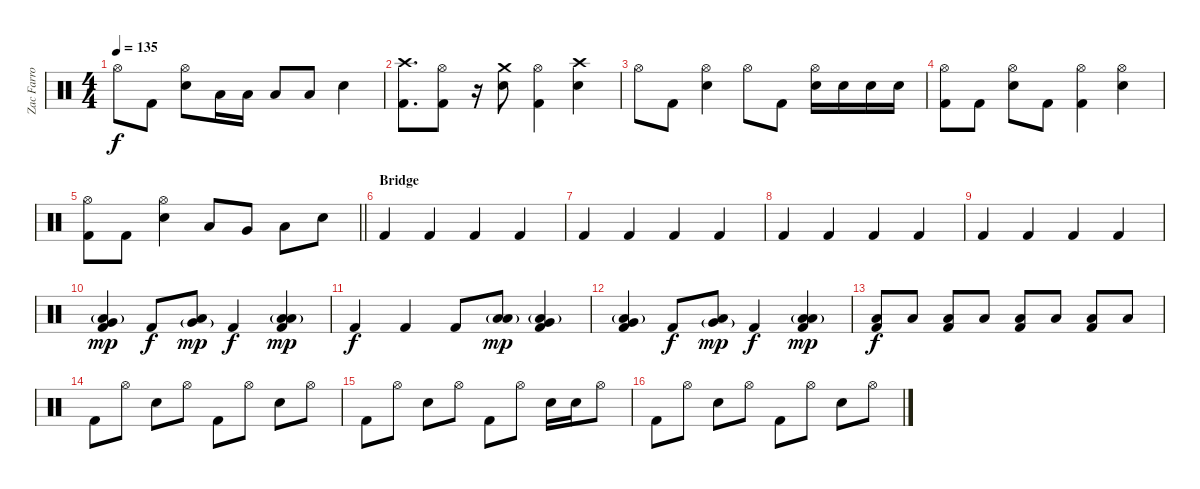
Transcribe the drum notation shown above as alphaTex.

\track ("Zac Farro" "Zac Farro") {instrument percussion}
\staff {score}
\articulation defaults
\ts (4 4)
\tempo 135
\clef neutral
\ks c "Hi-Hat (open)".8{dy f} "Kick (hit) 2".8
("Hi-Hat (open)" "Electric Snare (hit)").8 "Low Tom (hit)".16 "Low Tom (hit)".16 "Low Tom (hit)".8 "Low Floor Tom (hit)".8 "Electric Snare (hit)".4 |
("Crash high (hit)" "Kick (hit) 2").8{d} ("Hi-Hat (open)" "Kick (hit) 2").8 r.16 ("Crash medium (hit)" "Electric Snare (hit)").8 ("Hi-Hat (open)" "Kick (hit) 2").4 ("Crash high (hit)" "Electric Snare (hit)").4 |
"Hi-Hat (open)".8 "Kick (hit) 2".8 ("Hi-Hat (open)" "Electric Snare (hit)").4 "Hi-Hat (open)".8 "Kick (hit) 2".8 ("Hi-Hat (open)" "Electric Snare (hit)").16 "Electric Snare (hit)".16 "Electric Snare (hit)".16 "Electric Snare (hit)".16 |
("Hi-Hat (open)" "Kick (hit) 2").8 "Kick (hit) 2".8 ("Hi-Hat (open)" "Electric Snare (hit)").8 "Kick (hit) 2".8 ("Hi-Hat (open)" "Kick (hit) 2").4 ("Hi-Hat (open)" "Electric Snare (hit)").4 |
\barLineRight lightlight
("Hi-Hat (open)" "Kick (hit) 2").8 "Kick (hit) 2".8 ("Hi-Hat (open)" "Electric Snare (hit)").4 "Low Tom (hit)".8 "Very Low Tom (hit)".8 "Low Floor Tom (hit)".8 "Electric Snare (hit)".8 |
\section ("" "Bridge")
"Kick (hit) 2".4 "Kick (hit) 2".4 "Kick (hit) 2".4 "Kick (hit) 2".4 |
"Kick (hit) 2".4 "Kick (hit) 2".4 "Kick (hit) 2".4 "Kick (hit) 2".4 |
"Kick (hit) 2".4 "Kick (hit) 2".4 "Kick (hit) 2".4 "Kick (hit) 2".4 |
"Kick (hit) 2".4 "Kick (hit) 2".4 "Kick (hit) 2".4 "Kick (hit) 2".4 |
("Low Floor Tom (hit)"{g} "Very Low Tom (hit)" "Kick (hit) 2").4{dy mp} "Kick (hit) 2".8{dy f} ("Very Low Tom (hit)"{g} "Low Floor Tom (hit)").8{dy mp} "Kick (hit) 2".4{dy f} ("Low Floor Tom (hit)"{g} "Low Tom (hit)" "Kick (hit) 2").4{dy mp} |
"Kick (hit) 2".4{dy f} "Kick (hit) 2".4 "Kick (hit) 2".8 ("Low Floor Tom (hit)"{g} "Low Tom (hit)").8{dy mp} ("Low Floor Tom (hit)"{g} "Very Low Tom (hit)" "Kick (hit) 2").4 |
("Low Floor Tom (hit)"{g} "Very Low Tom (hit)" "Kick (hit) 2").4 "Kick (hit) 2".8{dy f} ("Very Low Tom (hit)"{g} "Low Floor Tom (hit)").8{dy mp} "Kick (hit) 2".4{dy f} ("Low Floor Tom (hit)"{g} "Low Tom (hit)" "Kick (hit) 2").4{dy mp} |
("Low Floor Tom (hit)" "Kick (hit) 2").8{dy f} "Low Floor Tom (hit)".8 ("Low Floor Tom (hit)" "Kick (hit) 2").8 "Low Floor Tom (hit)".8 ("Low Floor Tom (hit)" "Kick (hit) 2").8 "Low Floor Tom (hit)".8 ("Low Floor Tom (hit)" "Kick (hit) 2").8 "Low Floor Tom (hit)".8 |
"Kick (hit) 2".8 "Hi-Hat (open)".8 "Electric Snare (hit)".8 "Hi-Hat (open)".8 "Kick (hit) 2".8 "Hi-Hat (open)".8 "Electric Snare (hit)".8 "Hi-Hat (open)".8 |
"Kick (hit) 2".8 "Hi-Hat (open)".8 "Electric Snare (hit)".8 "Hi-Hat (open)".8 "Kick (hit) 2".8 "Hi-Hat (open)".8 "Electric Snare (hit)".16 "Electric Snare (hit)".16 "Hi-Hat (open)".8 |
"Kick (hit) 2".8 "Hi-Hat (open)".8 "Electric Snare (hit)".8 "Hi-Hat (open)".8 "Kick (hit) 2".8 "Hi-Hat (open)".8 "Electric Snare (hit)".8 "Hi-Hat (open)".8
